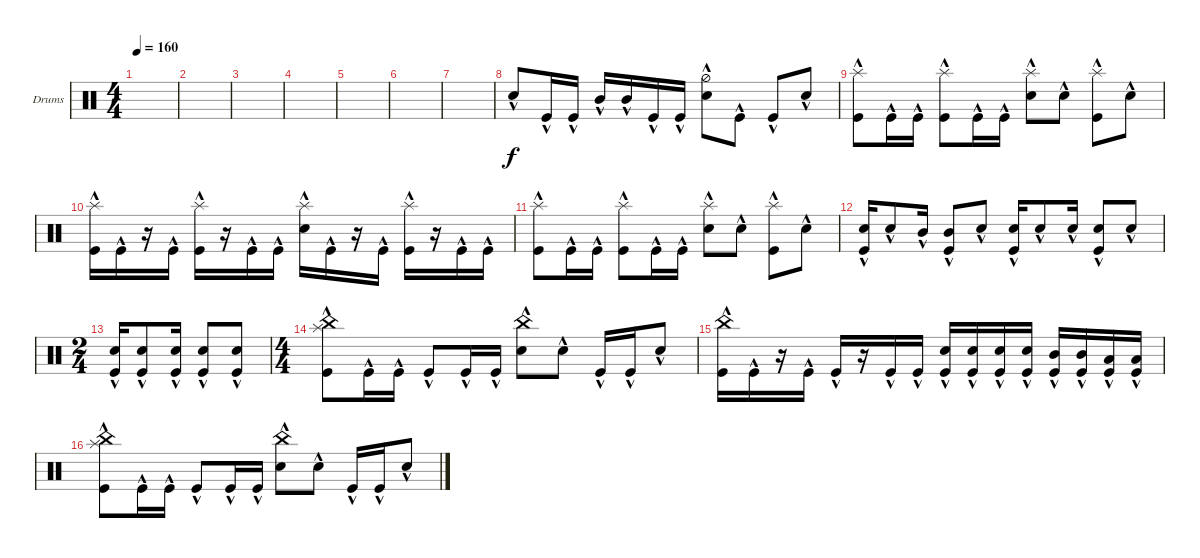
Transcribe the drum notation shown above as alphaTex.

\defaultSystemsLayout 4
\bracketExtendMode groupsimilarinstruments
\firstSystemTrackNameOrientation horizontal
\otherSystemsTrackNameOrientation horizontal
\track ("Drums" "Drums") {instrument percussion}
\staff {score}
\articulation defaults
\ts (4 4)
\tempo 160
\clef neutral
\scale
0.472222
\ks c
|
\scale
0.263889 |
\scale
0.263889 |
\scale
0.333333 |
\scale
0.333333 |
\scale
0.333333 |
\scale
0.333333 |
\scale
0.333333 "Snare (hit) 2"{hac}.8 "Kick (hit)"{hac}.16 "Kick (hit)"{hac}.16 "Mid Tom (hit)"{hac}.16 "Mid Tom (hit)"{hac}.16 "Kick (hit)"{hac}.16 "Kick (hit)"{hac}.16 ("Snare (hit) 2"{hac} "Hi-Hat (half)"{hac}).8 "Kick (hit)"{hac}.8 "Kick (hit)"{hac}.8 "Snare (hit) 2"{hac}.8 |
\scale
0.333333 ("Kick (hit)"{hac} "Splash (hit)"{hac}).8 "Kick (hit)"{hac}.16 "Kick (hit)"{hac}.16 ("Kick (hit)"{hac} "Splash (hit)"{hac}).8 "Kick (hit)"{hac}.16 "Kick (hit)"{hac}.16 ("Snare (hit) 2"{hac} "Splash (hit)"{hac}).8 "Snare (hit) 2"{hac}.8 ("Kick (hit)"{hac} "Splash (hit)"{hac}).8 "Snare (hit) 2"{hac}.8 |
("Kick (hit)"{hac} "Splash (hit)"{hac}).16 "Kick (hit)"{hac}.16 r.16 "Kick (hit)"{hac}.16 ("Kick (hit)"{hac} "Splash (hit)"{hac}).16 r.16 "Kick (hit)"{hac}.16 "Kick (hit)"{hac}.16 ("Snare (hit) 2"{hac} "Splash (hit)"{hac}).16 "Kick (hit)"{hac}.16 r.16 "Kick (hit)"{hac}.16 ("Kick (hit)"{hac} "Splash (hit)"{hac}).16 r.16 "Kick (hit)"{hac}.16 "Kick (hit)"{hac}.16 |
("Kick (hit)"{hac} "Splash (hit)"{hac}).8 "Kick (hit)"{hac}.16 "Kick (hit)"{hac}.16 ("Kick (hit)"{hac} "Splash (hit)"{hac}).8 "Kick (hit)"{hac}.16 "Kick (hit)"{hac}.16 ("Snare (hit) 2"{hac} "Splash (hit)"{hac}).8 "Snare (hit) 2"{hac}.8 ("Kick (hit)"{hac} "Splash (hit)"{hac}).8 "Snare (hit) 2"{hac}.8 |
("Snare (hit) 2"{hac} "Kick (hit)"{hac}).16 "Snare (hit) 2"{hac}.8 "Mid Tom (hit)"{hac}.16 ("Mid Tom (hit)"{hac} "Kick (hit)"{hac}).8 "Snare (hit) 2"{hac}.8 ("Snare (hit) 2"{hac} "Kick (hit)"{hac}).16 "Snare (hit) 2"{hac}.8 "Snare (hit) 2"{hac}.16 ("Snare (hit) 2"{hac} "Kick (hit)"{hac}).8 "Snare (hit) 2"{hac}.8 |
\ts (2 4)
("Snare (hit) 2"{hac} "Kick (hit)").16 ("Snare (hit) 2"{hac} "Kick (hit)").8 ("Snare (hit) 2"{hac} "Kick (hit)").16 ("Snare (hit) 2"{hac} "Kick (hit)").8 ("Snare (hit) 2"{hac} "Kick (hit)").8 |
\ts (4 4)
("Kick (hit)"{hac} "Splash (hit)"{hac} "China (hit)"{hac}).8 "Kick (hit)"{hac}.16 "Kick (hit)"{hac}.16 "Kick (hit)"{hac}.8 "Kick (hit)"{hac}.16 "Kick (hit)"{hac}.16 ("Snare (hit) 2"{hac} "China (hit)"{hac}).8 "Snare (hit) 2"{hac}.8 "Kick (hit)"{hac}.16 "Kick (hit)"{hac}.16 "Snare (hit) 2"{hac}.8 |
("Kick (hit)"{hac} "China (hit)"{hac}).16 "Kick (hit)"{hac}.16 r.16 "Kick (hit)"{hac}.16 "Kick (hit)"{hac}.16 r.16 "Kick (hit)"{hac}.16 "Kick (hit)"{hac}.16 ("Snare (hit) 2"{hac} "Kick (hit)").16 ("Snare (hit) 2"{hac} "Kick (hit)").16 ("Snare (hit) 2"{hac} "Kick (hit)").16 ("Snare (hit) 2"{hac} "Kick (hit)").16 ("Mid Tom (hit)"{hac} "Kick (hit)").16 ("Mid Tom (hit)"{hac} "Kick (hit)").16 ("Low Tom (hit)"{hac} "Kick (hit)").16 ("Low Tom (hit)"{hac} "Kick (hit)").16 |
("Kick (hit)"{hac} "Splash (hit)"{hac} "China (hit)"{hac}).8 "Kick (hit)"{hac}.16 "Kick (hit)"{hac}.16 "Kick (hit)"{hac}.8 "Kick (hit)"{hac}.16 "Kick (hit)"{hac}.16 ("Snare (hit) 2"{hac} "China (hit)"{hac}).8 "Snare (hit) 2"{hac}.8 "Kick (hit)"{hac}.16 "Kick (hit)"{hac}.16 "Snare (hit) 2"{hac}.8
